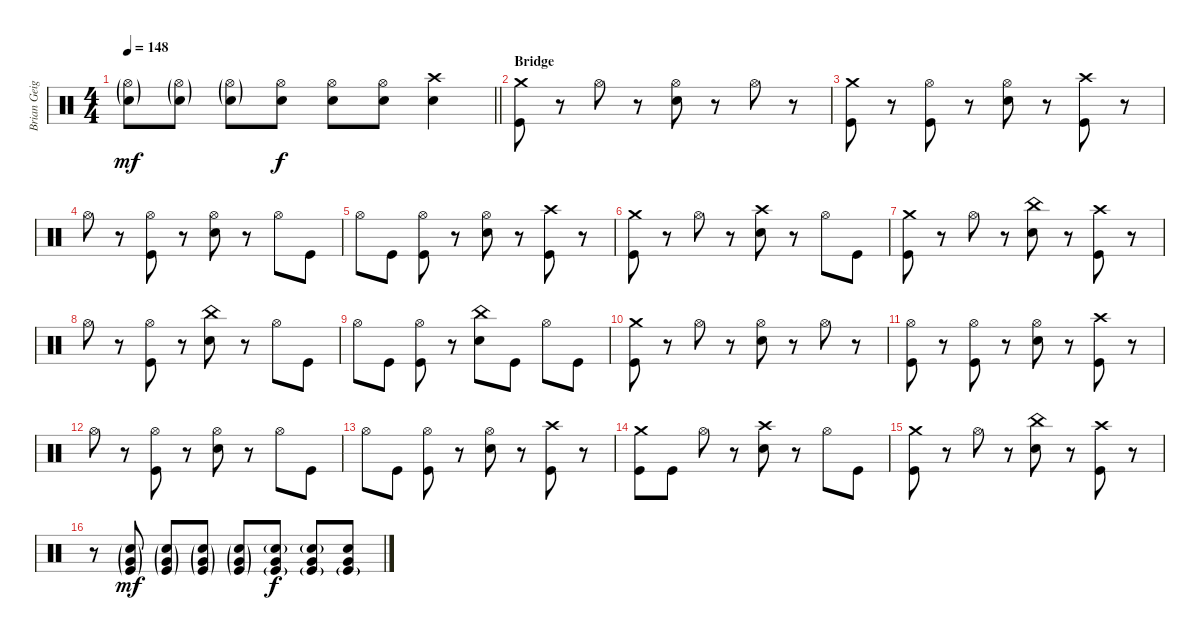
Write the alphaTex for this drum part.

\track ("Brian Geiger" "Brian Geig") {instrument percussion}
\staff {score}
\articulation defaults
\ts (4 4)
\tempo 148
\clef neutral
\barLineRight lightlight
\ks c
("Hi-Hat (open)"{g} "Snare (hit) 2"{g}).8{dy mf} ("Hi-Hat (open)"{g} "Snare (hit) 2"{g}).8 ("Hi-Hat (open)"{g} "Snare (hit) 2"{g}).8 ("Hi-Hat (open)" "Snare (hit) 2").8{dy f} ("Hi-Hat (open)" "Snare (hit) 2").8 ("Hi-Hat (open)" "Snare (hit) 2").8 ("Crash high (hit)" "Snare (hit) 2").4 |
\section ("" "Bridge")
("Crash medium (hit)" "Kick (hit)").8 r.8 "Hi-Hat (open)".8 r.8 ("Hi-Hat (open)" "Snare (hit) 2").8 r.8 "Hi-Hat (open)".8 r.8 |
("Crash medium (hit)" "Kick (hit)").8 r.8 ("Hi-Hat (open)" "Kick (hit)").8 r.8 ("Hi-Hat (open)" "Snare (hit) 2").8 r.8 ("Crash high (hit)" "Kick (hit)").8 r.8 |
"Hi-Hat (open)".8 r.8 ("Hi-Hat (open)" "Kick (hit)").8 r.8 ("Hi-Hat (open)" "Snare (hit) 2").8 r.8 "Hi-Hat (open)".8 "Kick (hit)".8 |
"Hi-Hat (open)".8 "Kick (hit)".8 ("Hi-Hat (open)" "Kick (hit)").8 r.8 ("Hi-Hat (open)" "Snare (hit) 2").8 r.8 ("Crash high (hit)" "Kick (hit)").8 r.8 |
("Crash medium (hit)" "Kick (hit)").8 r.8 "Hi-Hat (open)".8 r.8 ("Crash high (hit)" "Snare (hit) 2").8 r.8 "Hi-Hat (open)".8 "Kick (hit)".8 |
("Crash medium (hit)" "Kick (hit)").8 r.8 "Hi-Hat (open)".8 r.8 ("China (hit)" "Snare (hit) 2").8 r.8 ("Crash high (hit)" "Kick (hit)").8 r.8 |
"Hi-Hat (open)".8 r.8 ("Hi-Hat (open)" "Kick (hit)").8 r.8 ("China (hit)" "Snare (hit) 2").8 r.8 "Hi-Hat (open)".8 "Kick (hit)".8 |
"Hi-Hat (open)".8 "Kick (hit)".8 ("Hi-Hat (open)" "Kick (hit)").8 r.8 ("China (hit)" "Snare (hit) 2").8 "Kick (hit)".8 "Hi-Hat (open)".8 "Kick (hit)".8 |
("Crash medium (hit)" "Kick (hit)").8 r.8 "Hi-Hat (open)".8 r.8 ("Hi-Hat (open)" "Snare (hit) 2").8 r.8 "Hi-Hat (open)".8 r.8 |
("Hi-Hat (open)" "Kick (hit)").8 r.8 ("Hi-Hat (open)" "Kick (hit)").8 r.8 ("Hi-Hat (open)" "Snare (hit) 2").8 r.8 ("Crash high (hit)" "Kick (hit)").8 r.8 |
"Hi-Hat (open)".8 r.8 ("Hi-Hat (open)" "Kick (hit)").8 r.8 ("Hi-Hat (open)" "Snare (hit) 2").8 r.8 "Hi-Hat (open)".8 "Kick (hit)".8 |
"Hi-Hat (open)".8 "Kick (hit)".8 ("Hi-Hat (open)" "Kick (hit)").8 r.8 ("Hi-Hat (open)" "Snare (hit) 2").8 r.8 ("Crash high (hit)" "Kick (hit)").8 r.8 |
("Crash medium (hit)" "Kick (hit)").8 "Kick (hit)".8 "Hi-Hat (open)".8 r.8 ("Crash high (hit)" "Snare (hit) 2").8 r.8 "Hi-Hat (open)".8 "Kick (hit)".8 |
("Crash medium (hit)" "Kick (hit)").8 r.8 "Hi-Hat (open)".8 r.8 ("China (hit)" "Snare (hit) 2").8 r.8 ("Crash high (hit)" "Kick (hit)").8 r.8 |
r.8 ("Snare (hit) 2"{g} "Very Low Tom (hit)"{g} "Kick (hit)"{g}).8{dy mf} ("Snare (hit) 2"{g} "Very Low Tom (hit)"{g} "Kick (hit)"{g}).8 ("Snare (hit) 2"{g} "Very Low Tom (hit)"{g} "Kick (hit)"{g}).8 ("Snare (hit) 2"{g} "Very Low Tom (hit)"{g} "Kick (hit)"{g}).8 ("Snare (hit) 2"{g} "Very Low Tom (hit)" "Kick (hit)"{g}).8{dy f} ("Snare (hit) 2"{g} "Very Low Tom (hit)" "Kick (hit)"{g}).8 ("Snare (hit) 2" "Very Low Tom (hit)" "Kick (hit)"{g}).8
